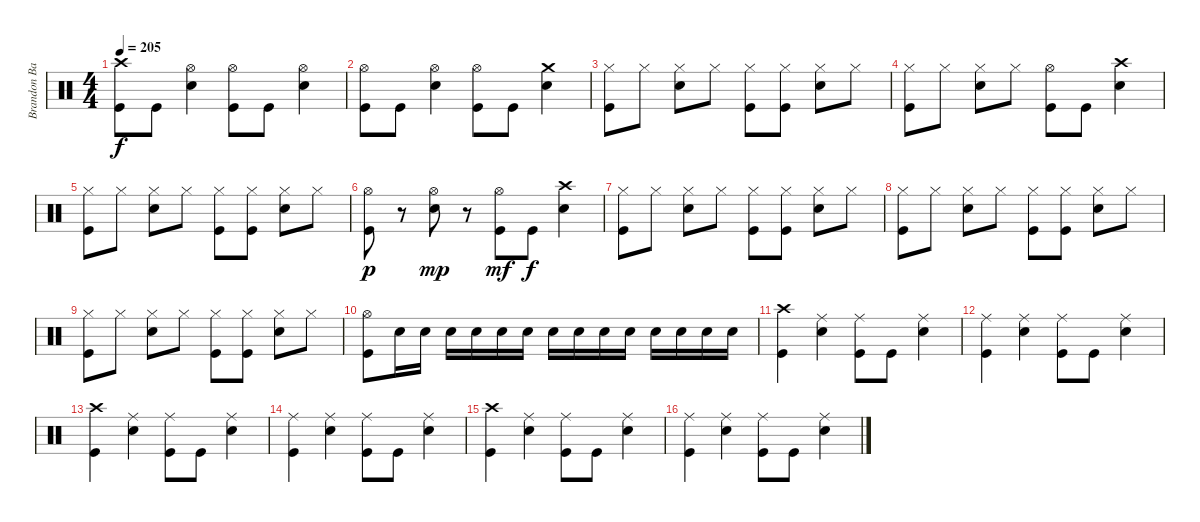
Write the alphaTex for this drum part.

\track ("Brandon Barnes" "Brandon Ba") {instrument percussion}
\staff {score}
\articulation defaults
\ts (4 4)
\tempo 205
\clef neutral
\ks c
("Kick (hit)" "Crash high (hit)").8{dy f} "Kick (hit)".8 ("Electric Snare (hit)" "Hi-Hat (open)").4 ("Kick (hit)" "Hi-Hat (open)").8 "Kick (hit)".8 ("Electric Snare (hit)" "Hi-Hat (open)").4 |
("Kick (hit)" "Hi-Hat (open)").8 "Kick (hit)".8 ("Electric Snare (hit)" "Hi-Hat (open)").4 ("Kick (hit)" "Hi-Hat (open)").8 "Kick (hit)".8 ("Electric Snare (hit)" "Crash medium (hit)").4 |
("Kick (hit)" "Hi-Hat (closed)").8 "Hi-Hat (closed)".8 ("Electric Snare (hit)" "Hi-Hat (closed)").8 "Hi-Hat (closed)".8 ("Kick (hit)" "Hi-Hat (closed)").8 ("Kick (hit)" "Hi-Hat (closed)").8 ("Electric Snare (hit)" "Hi-Hat (closed)").8 "Hi-Hat (closed)".8 |
("Kick (hit)" "Hi-Hat (closed)").8 "Hi-Hat (closed)".8 ("Electric Snare (hit)" "Hi-Hat (closed)").8 "Hi-Hat (closed)".8 ("Kick (hit)" "Hi-Hat (open)").8 "Kick (hit)".8 ("Electric Snare (hit)" "Crash high (hit)").4 |
("Kick (hit)" "Hi-Hat (closed)").8 "Hi-Hat (closed)".8 ("Electric Snare (hit)" "Hi-Hat (closed)").8 "Hi-Hat (closed)".8 ("Kick (hit)" "Hi-Hat (closed)").8 ("Kick (hit)" "Hi-Hat (closed)").8 ("Electric Snare (hit)" "Hi-Hat (closed)").8 "Hi-Hat (closed)".8 |
("Kick (hit)" "Hi-Hat (open)").8{dy p} r.8 ("Electric Snare (hit)" "Hi-Hat (open)").8{dy mp} r.8 ("Kick (hit)" "Hi-Hat (open)").8{dy mf} "Kick (hit)".8{dy f} ("Electric Snare (hit)" "Crash high (hit)").4 |
("Kick (hit)" "Hi-Hat (closed)").8 "Hi-Hat (closed)".8 ("Electric Snare (hit)" "Hi-Hat (closed)").8 "Hi-Hat (closed)".8 ("Kick (hit)" "Hi-Hat (closed)").8 ("Kick (hit)" "Hi-Hat (closed)").8 ("Electric Snare (hit)" "Hi-Hat (closed)").8 "Hi-Hat (closed)".8 |
("Kick (hit)" "Hi-Hat (closed)").8 "Hi-Hat (closed)".8 ("Electric Snare (hit)" "Hi-Hat (closed)").8 "Hi-Hat (closed)".8 ("Kick (hit)" "Hi-Hat (closed)").8 ("Kick (hit)" "Hi-Hat (closed)").8 ("Electric Snare (hit)" "Hi-Hat (closed)").8 "Hi-Hat (closed)".8 |
("Kick (hit)" "Hi-Hat (closed)").8 "Hi-Hat (closed)".8 ("Electric Snare (hit)" "Hi-Hat (closed)").8 "Hi-Hat (closed)".8 ("Kick (hit)" "Hi-Hat (closed)").8 ("Kick (hit)" "Hi-Hat (closed)").8 ("Electric Snare (hit)" "Hi-Hat (closed)").8 "Hi-Hat (closed)".8 |
("Kick (hit)" "Hi-Hat (open)").8 "Electric Snare (hit)".16 "Electric Snare (hit)".16 "Electric Snare (hit)".16 "Electric Snare (hit)".16 "Electric Snare (hit)".16 "Electric Snare (hit)".16 "Electric Snare (hit)".16 "Electric Snare (hit)".16 "Electric Snare (hit)".16 "Electric Snare (hit)".16 "Electric Snare (hit)".16 "Electric Snare (hit)".16 "Electric Snare (hit)".16 "Electric Snare (hit)".16 |
("Kick (hit)" "Crash high (hit)").4 ("Electric Snare (hit)" "Ride (middle)").4 ("Kick (hit)" "Ride (middle)").8 "Kick (hit)".8 ("Electric Snare (hit)" "Ride (middle)").4 |
("Kick (hit)" "Ride (middle)").4 ("Electric Snare (hit)" "Ride (middle)").4 ("Kick (hit)" "Ride (middle)").8 "Kick (hit)".8 ("Electric Snare (hit)" "Ride (middle)").4 |
("Kick (hit)" "Crash high (hit)").4 ("Electric Snare (hit)" "Ride (middle)").4 ("Kick (hit)" "Ride (middle)").8 "Kick (hit)".8 ("Electric Snare (hit)" "Ride (middle)").4 |
("Kick (hit)" "Ride (middle)").4 ("Electric Snare (hit)" "Ride (middle)").4 ("Kick (hit)" "Ride (middle)").8 "Kick (hit)".8 ("Electric Snare (hit)" "Ride (middle)").4 |
("Kick (hit)" "Crash high (hit)").4 ("Electric Snare (hit)" "Ride (middle)").4 ("Kick (hit)" "Ride (middle)").8 "Kick (hit)".8 ("Electric Snare (hit)" "Ride (middle)").4 |
("Kick (hit)" "Ride (middle)").4 ("Electric Snare (hit)" "Ride (middle)").4 ("Kick (hit)" "Ride (middle)").8 "Kick (hit)".8 ("Electric Snare (hit)" "Ride (middle)").4
